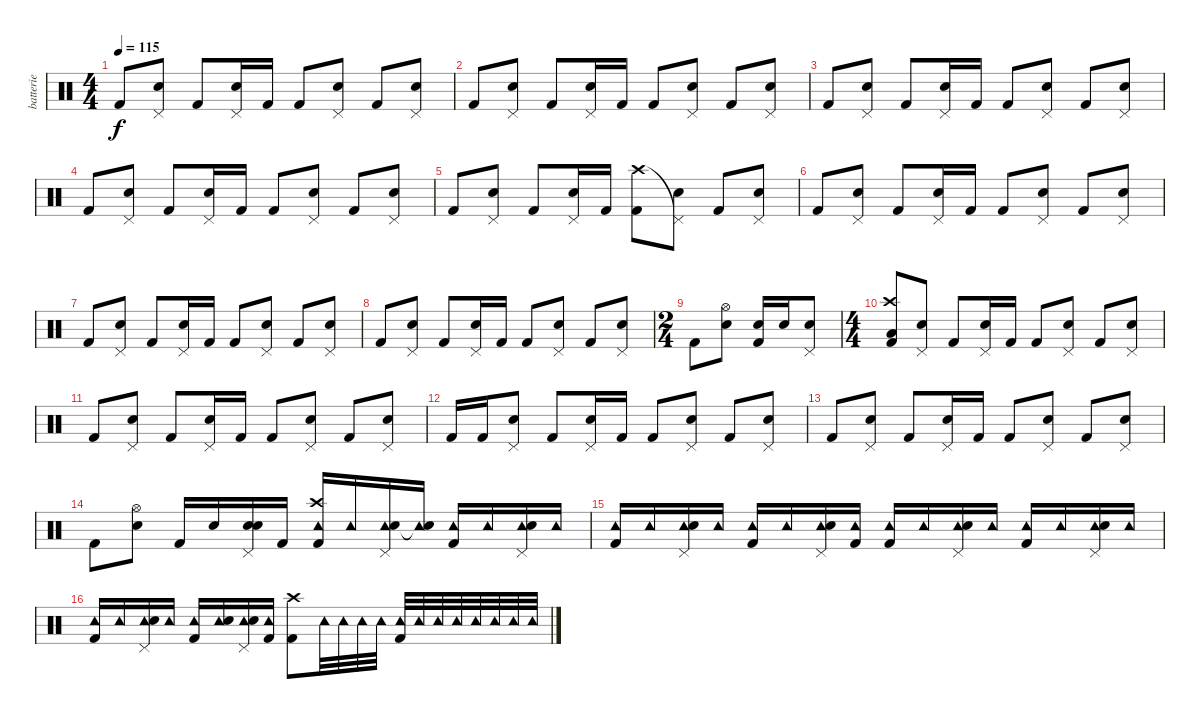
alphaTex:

\track ("batterie" "batterie") {instrument percussion}
\staff {score}
\articulation defaults
\ts (4 4)
\tempo 115
\clef neutral
\ks c "Kick (hit) 2".8{dy f}
("Pedal Hi-Hat (hit)" "Electric Snare (hit)").8 "Kick (hit) 2".8 ("Pedal Hi-Hat (hit)" "Electric Snare (hit)").16 "Kick (hit) 2".16 "Kick (hit) 2".8 ("Pedal Hi-Hat (hit)" "Electric Snare (hit)").8 "Kick (hit) 2".8 ("Pedal Hi-Hat (hit)" "Electric Snare (hit)").8 |
"Kick (hit) 2".8 ("Pedal Hi-Hat (hit)" "Electric Snare (hit)").8 "Kick (hit) 2".8 ("Pedal Hi-Hat (hit)" "Electric Snare (hit)").16 "Kick (hit) 2".16 "Kick (hit) 2".8 ("Pedal Hi-Hat (hit)" "Electric Snare (hit)").8 "Kick (hit) 2".8 ("Pedal Hi-Hat (hit)" "Electric Snare (hit)").8 |
"Kick (hit) 2".8 ("Pedal Hi-Hat (hit)" "Electric Snare (hit)").8 "Kick (hit) 2".8 ("Pedal Hi-Hat (hit)" "Electric Snare (hit)").16 "Kick (hit) 2".16 "Kick (hit) 2".8 ("Pedal Hi-Hat (hit)" "Electric Snare (hit)").8 "Kick (hit) 2".8 ("Pedal Hi-Hat (hit)" "Electric Snare (hit)").8 |
"Kick (hit) 2".8 ("Pedal Hi-Hat (hit)" "Electric Snare (hit)").8 "Kick (hit) 2".8 ("Pedal Hi-Hat (hit)" "Electric Snare (hit)").16 "Kick (hit) 2".16 "Kick (hit) 2".8 ("Pedal Hi-Hat (hit)" "Electric Snare (hit)").8 "Kick (hit) 2".8 ("Pedal Hi-Hat (hit)" "Electric Snare (hit)").8 |
"Kick (hit) 2".8 ("Pedal Hi-Hat (hit)" "Electric Snare (hit)").8 "Kick (hit) 2".8 ("Pedal Hi-Hat (hit)" "Electric Snare (hit)").16 "Kick (hit) 2".16 ("Crash high (hit)" "Kick (hit) 2").8 ("Pedal Hi-Hat (hit)"{t} "Electric Snare (hit)").8 "Kick (hit) 2".8 ("Pedal Hi-Hat (hit)" "Electric Snare (hit)").8 |
"Kick (hit) 2".8 ("Pedal Hi-Hat (hit)" "Electric Snare (hit)").8 "Kick (hit) 2".8 ("Pedal Hi-Hat (hit)" "Electric Snare (hit)").16 "Kick (hit) 2".16 "Kick (hit) 2".8 ("Pedal Hi-Hat (hit)" "Electric Snare (hit)").8 "Kick (hit) 2".8 ("Pedal Hi-Hat (hit)" "Electric Snare (hit)").8 |
"Kick (hit) 2".8 ("Pedal Hi-Hat (hit)" "Electric Snare (hit)").8 "Kick (hit) 2".8 ("Pedal Hi-Hat (hit)" "Electric Snare (hit)").16 "Kick (hit) 2".16 "Kick (hit) 2".8 ("Pedal Hi-Hat (hit)" "Electric Snare (hit)").8 "Kick (hit) 2".8 ("Pedal Hi-Hat (hit)" "Electric Snare (hit)").8 |
"Kick (hit) 2".8 ("Pedal Hi-Hat (hit)" "Electric Snare (hit)").8 "Kick (hit) 2".8 ("Pedal Hi-Hat (hit)" "Electric Snare (hit)").16 "Kick (hit) 2".16 "Kick (hit) 2".8 ("Pedal Hi-Hat (hit)" "Electric Snare (hit)").8 "Kick (hit) 2".8 ("Pedal Hi-Hat (hit)" "Electric Snare (hit)").8 |
\ts (2 4)
"Kick (hit) 2".8 ("Hi-Hat (open)" "Electric Snare (hit)").8 ("Electric Snare (hit)" "Kick (hit) 2").16 "Electric Snare (hit)".16 ("Pedal Hi-Hat (hit)" "Electric Snare (hit)").8 |
\ts (4 4)
("Crash high (hit)" "Low Tom (hit)" "Kick (hit) 2").8 ("Pedal Hi-Hat (hit)" "Electric Snare (hit)").8 "Kick (hit) 2".8 ("Pedal Hi-Hat (hit)" "Electric Snare (hit)").16 "Kick (hit) 2".16 "Kick (hit) 2".8 ("Pedal Hi-Hat (hit)" "Electric Snare (hit)").8 "Kick (hit) 2".8 ("Pedal Hi-Hat (hit)" "Electric Snare (hit)").8 |
"Kick (hit) 2".8 ("Pedal Hi-Hat (hit)" "Electric Snare (hit)").8 "Kick (hit) 2".8 ("Pedal Hi-Hat (hit)" "Electric Snare (hit)").16 "Kick (hit) 2".16 "Kick (hit) 2".8 ("Pedal Hi-Hat (hit)" "Electric Snare (hit)").8 "Kick (hit) 2".8 ("Pedal Hi-Hat (hit)" "Electric Snare (hit)").8 |
"Kick (hit) 2".16 "Kick (hit) 2".16 ("Pedal Hi-Hat (hit)" "Electric Snare (hit)").8 "Kick (hit) 2".8 ("Pedal Hi-Hat (hit)" "Electric Snare (hit)").16 "Kick (hit) 2".16 "Kick (hit) 2".8 ("Pedal Hi-Hat (hit)" "Electric Snare (hit)").8 "Kick (hit) 2".8 ("Pedal Hi-Hat (hit)" "Electric Snare (hit)").8 |
"Kick (hit) 2".8 ("Pedal Hi-Hat (hit)" "Electric Snare (hit)").8 "Kick (hit) 2".8 ("Pedal Hi-Hat (hit)" "Electric Snare (hit)").16 "Kick (hit) 2".16 "Kick (hit) 2".8 ("Pedal Hi-Hat (hit)" "Electric Snare (hit)").8 "Kick (hit) 2".8 ("Pedal Hi-Hat (hit)" "Electric Snare (hit)").8 |
"Kick (hit) 2".8 ("Hi-Hat (open)" "Electric Snare (hit)").8 "Kick (hit) 2".16 "Electric Snare (hit)".16 ("Pedal Hi-Hat (hit)" "Electric Snare (hit)" "Snare (hit)").16 "Kick (hit) 2".16 ("Crash high (hit)" "Tambourine (hit)" "Kick (hit) 2").16 "Tambourine (hit)".16 ("Pedal Hi-Hat (hit)" "Tambourine (hit)" "Electric Snare (hit)").16 ("Tambourine (hit)" "Snare (hit)"{t}).16 ("Tambourine (hit)" "Kick (hit) 2").16 "Tambourine (hit)".16 ("Pedal Hi-Hat (hit)" "Tambourine (hit)" "Electric Snare (hit)").16 "Tambourine (hit)".16 |
("Tambourine (hit)" "Kick (hit) 2").16 "Tambourine (hit)".16 ("Pedal Hi-Hat (hit)" "Tambourine (hit)" "Electric Snare (hit)").16 "Tambourine (hit)".16 ("Tambourine (hit)" "Kick (hit) 2").16 "Tambourine (hit)".16 ("Pedal Hi-Hat (hit)" "Tambourine (hit)" "Electric Snare (hit)").16 ("Tambourine (hit)" "Kick (hit) 2").16 ("Tambourine (hit)" "Kick (hit) 2").16 "Tambourine (hit)".16 ("Pedal Hi-Hat (hit)" "Tambourine (hit)" "Electric Snare (hit)").16 "Tambourine (hit)".16 ("Tambourine (hit)" "Kick (hit) 2").16 "Tambourine (hit)".16 ("Pedal Hi-Hat (hit)" "Tambourine (hit)" "Electric Snare (hit)").16 "Tambourine (hit)".16 |
("Tambourine (hit)" "Kick (hit) 2").16 "Tambourine (hit)".16 ("Pedal Hi-Hat (hit)" "Tambourine (hit)" "Electric Snare (hit)").16 "Tambourine (hit)".16 ("Tambourine (hit)" "Kick (hit) 2").16 ("Tambourine (hit)" "Electric Snare (hit)").16 ("Pedal Hi-Hat (hit)" "Tambourine (hit)" "Electric Snare (hit)").16 ("Tambourine (hit)" "Kick (hit) 2").16 ("Crash high (hit)" "Kick (hit) 2").8 "Tambourine (hit)".32 "Tambourine (hit)".32 "Tambourine (hit)".32 "Tambourine (hit)".32 ("Tambourine (hit)" "Kick (hit) 2").32 "Tambourine (hit)".32 "Tambourine (hit)".32 "Tambourine (hit)".32 "Tambourine (hit)".32 "Tambourine (hit)".32 "Tambourine (hit)".32 "Tambourine (hit)".32
